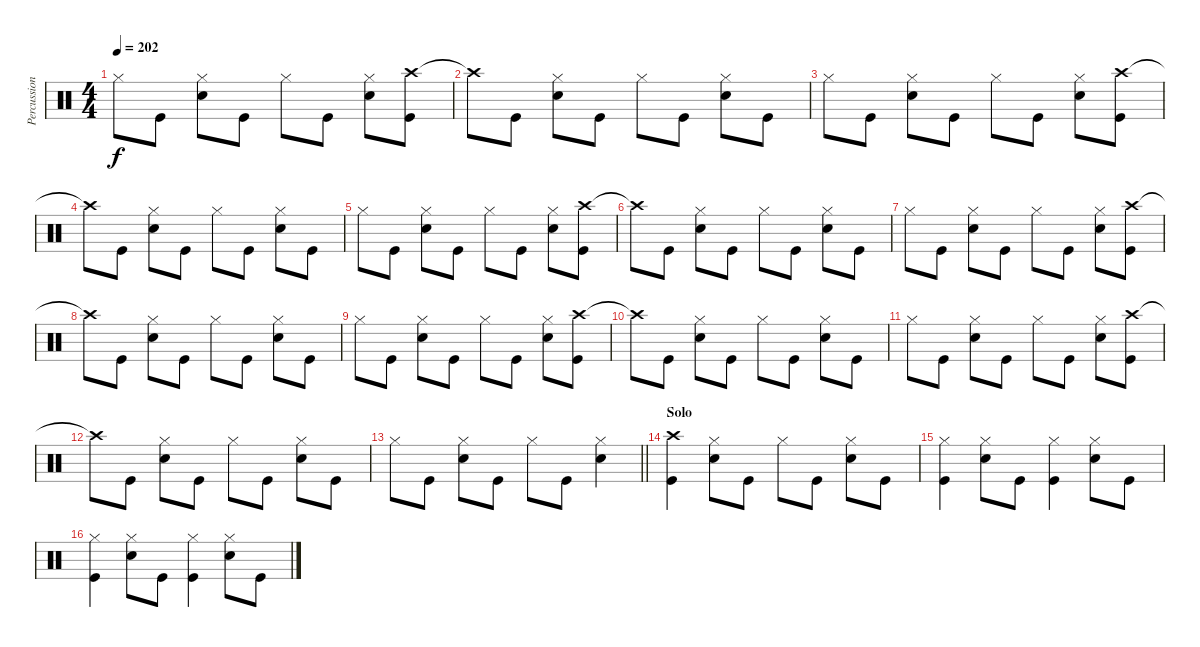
\track ("Percussion" "Percussion") {instrument percussion}
\staff {score}
\articulation defaults
\ts (4 4)
\tempo 202
\clef neutral
\ks c "Hi-Hat (closed)".8{dy f} "Kick (hit)".8
("Hi-Hat (closed)" "Snare (hit) 2").8 "Kick (hit)".8 "Hi-Hat (closed)".8 "Kick (hit)".8 ("Hi-Hat (closed)" "Snare (hit) 2").8 ("Crash high (hit)" "Kick (hit)").8 |
"Crash high (hit)"{t}.8 "Kick (hit)".8 ("Hi-Hat (closed)" "Snare (hit) 2").8 "Kick (hit)".8 "Hi-Hat (closed)".8 "Kick (hit)".8 ("Hi-Hat (closed)" "Snare (hit) 2").8 "Kick (hit)".8 |
"Hi-Hat (closed)".8 "Kick (hit)".8 ("Hi-Hat (closed)" "Snare (hit) 2").8 "Kick (hit)".8 "Hi-Hat (closed)".8 "Kick (hit)".8 ("Hi-Hat (closed)" "Snare (hit) 2").8 ("Crash high (hit)" "Kick (hit)").8 |
"Crash high (hit)"{t}.8 "Kick (hit)".8 ("Hi-Hat (closed)" "Snare (hit) 2").8 "Kick (hit)".8 "Hi-Hat (closed)".8 "Kick (hit)".8 ("Hi-Hat (closed)" "Snare (hit) 2").8 "Kick (hit)".8 |
"Hi-Hat (closed)".8 "Kick (hit)".8 ("Hi-Hat (closed)" "Snare (hit) 2").8 "Kick (hit)".8 "Hi-Hat (closed)".8 "Kick (hit)".8 ("Hi-Hat (closed)" "Snare (hit) 2").8 ("Crash high (hit)" "Kick (hit)").8 |
"Crash high (hit)"{t}.8 "Kick (hit)".8 ("Hi-Hat (closed)" "Snare (hit) 2").8 "Kick (hit)".8 "Hi-Hat (closed)".8 "Kick (hit)".8 ("Hi-Hat (closed)" "Snare (hit) 2").8 "Kick (hit)".8 |
"Hi-Hat (closed)".8 "Kick (hit)".8 ("Hi-Hat (closed)" "Snare (hit) 2").8 "Kick (hit)".8 "Hi-Hat (closed)".8 "Kick (hit)".8 ("Hi-Hat (closed)" "Snare (hit) 2").8 ("Crash high (hit)" "Kick (hit)").8 |
"Crash high (hit)"{t}.8 "Kick (hit)".8 ("Hi-Hat (closed)" "Snare (hit) 2").8 "Kick (hit)".8 "Hi-Hat (closed)".8 "Kick (hit)".8 ("Hi-Hat (closed)" "Snare (hit) 2").8 "Kick (hit)".8 |
"Hi-Hat (closed)".8 "Kick (hit)".8 ("Hi-Hat (closed)" "Snare (hit) 2").8 "Kick (hit)".8 "Hi-Hat (closed)".8 "Kick (hit)".8 ("Hi-Hat (closed)" "Snare (hit) 2").8 ("Crash high (hit)" "Kick (hit)").8 |
"Crash high (hit)"{t}.8 "Kick (hit)".8 ("Hi-Hat (closed)" "Snare (hit) 2").8 "Kick (hit)".8 "Hi-Hat (closed)".8 "Kick (hit)".8 ("Hi-Hat (closed)" "Snare (hit) 2").8 "Kick (hit)".8 |
"Hi-Hat (closed)".8 "Kick (hit)".8 ("Hi-Hat (closed)" "Snare (hit) 2").8 "Kick (hit)".8 "Hi-Hat (closed)".8 "Kick (hit)".8 ("Hi-Hat (closed)" "Snare (hit) 2").8 ("Crash high (hit)" "Kick (hit)").8 |
"Crash high (hit)"{t}.8 "Kick (hit)".8 ("Hi-Hat (closed)" "Snare (hit) 2").8 "Kick (hit)".8 "Hi-Hat (closed)".8 "Kick (hit)".8 ("Hi-Hat (closed)" "Snare (hit) 2").8 "Kick (hit)".8 |
\barLineRight lightlight "Hi-Hat (closed)".8 "Kick (hit)".8
("Hi-Hat (closed)" "Snare (hit) 2").8 "Kick (hit)".8 "Hi-Hat (closed)".8 "Kick (hit)".8 ("Hi-Hat (closed)" "Snare (hit) 2").4 |
\section ("" "Solo")
("Crash high (hit)" "Kick (hit)").4 ("Hi-Hat (closed)" "Snare (hit) 2").8 "Kick (hit)".8 "Hi-Hat (closed)".8 "Kick (hit)".8 ("Hi-Hat (closed)" "Snare (hit) 2").8 "Kick (hit)".8 |
("Hi-Hat (closed)" "Kick (hit)").4 ("Hi-Hat (closed)" "Snare (hit) 2").8 "Kick (hit)".8 ("Kick (hit)" "Hi-Hat (closed)").4 ("Hi-Hat (closed)" "Snare (hit) 2").8 "Kick (hit)".8 |
("Hi-Hat (closed)" "Kick (hit)").4 ("Hi-Hat (closed)" "Snare (hit) 2").8 "Kick (hit)".8 ("Kick (hit)" "Hi-Hat (closed)").4 ("Hi-Hat (closed)" "Snare (hit) 2").8 "Kick (hit)".8
